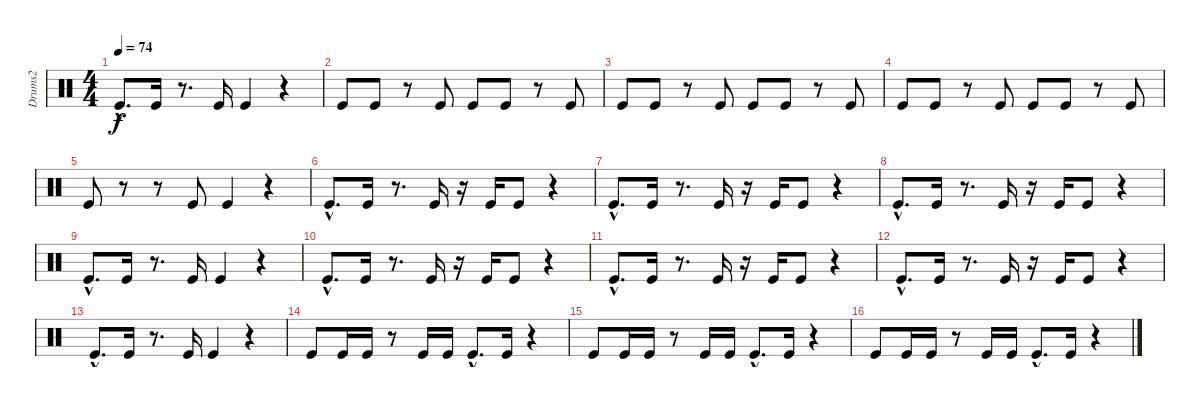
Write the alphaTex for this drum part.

\track ("Drums2" "Drums2") {instrument percussion}
\staff {score}
\articulation defaults
\ts (4 4)
\tempo 74
\clef neutral
\ks c "Kick (hit)"{hac}.8{d dy f} "Kick (hit)".16
r.8{d} "Kick (hit)".16 "Kick (hit)".4 r.4 |
"Kick (hit)".8 "Kick (hit)".8 r.8 "Kick (hit)".8 "Kick (hit)".8 "Kick (hit)".8 r.8 "Kick (hit)".8 |
"Kick (hit)".8 "Kick (hit)".8 r.8 "Kick (hit)".8 "Kick (hit)".8 "Kick (hit)".8 r.8 "Kick (hit)".8 |
"Kick (hit)".8 "Kick (hit)".8 r.8 "Kick (hit)".8 "Kick (hit)".8 "Kick (hit)".8 r.8 "Kick (hit)".8 |
"Kick (hit)".8 r.8 r.8 "Kick (hit)".8 "Kick (hit)".4 r.4 |
"Kick (hit)"{hac}.8{d} "Kick (hit)".16 r.8{d} "Kick (hit)".16 r.16 "Kick (hit)".16 "Kick (hit)".8 r.4 |
"Kick (hit)"{hac}.8{d} "Kick (hit)".16 r.8{d} "Kick (hit)".16 r.16 "Kick (hit)".16 "Kick (hit)".8 r.4 |
"Kick (hit)"{hac}.8{d} "Kick (hit)".16 r.8{d} "Kick (hit)".16 r.16 "Kick (hit)".16 "Kick (hit)".8 r.4 |
"Kick (hit)"{hac}.8{d} "Kick (hit)".16 r.8{d} "Kick (hit)".16 "Kick (hit)".4 r.4 |
"Kick (hit)"{hac}.8{d} "Kick (hit)".16 r.8{d} "Kick (hit)".16 r.16 "Kick (hit)".16 "Kick (hit)".8 r.4 |
"Kick (hit)"{hac}.8{d} "Kick (hit)".16 r.8{d} "Kick (hit)".16 r.16 "Kick (hit)".16 "Kick (hit)".8 r.4 |
"Kick (hit)"{hac}.8{d} "Kick (hit)".16 r.8{d} "Kick (hit)".16 r.16 "Kick (hit)".16 "Kick (hit)".8 r.4 |
"Kick (hit)"{hac}.8{d} "Kick (hit)".16 r.8{d} "Kick (hit)".16 "Kick (hit)".4 r.4 |
"Kick (hit)".8 "Kick (hit)".16 "Kick (hit)".16 r.8 "Kick (hit)".16 "Kick (hit)".16 "Kick (hit)"{hac}.8{d} "Kick (hit)".16 r.4 |
"Kick (hit)".8 "Kick (hit)".16 "Kick (hit)".16 r.8 "Kick (hit)".16 "Kick (hit)".16 "Kick (hit)"{hac}.8{d} "Kick (hit)".16 r.4 |
"Kick (hit)".8 "Kick (hit)".16 "Kick (hit)".16 r.8 "Kick (hit)".16 "Kick (hit)".16 "Kick (hit)"{hac}.8{d} "Kick (hit)".16 r.4
